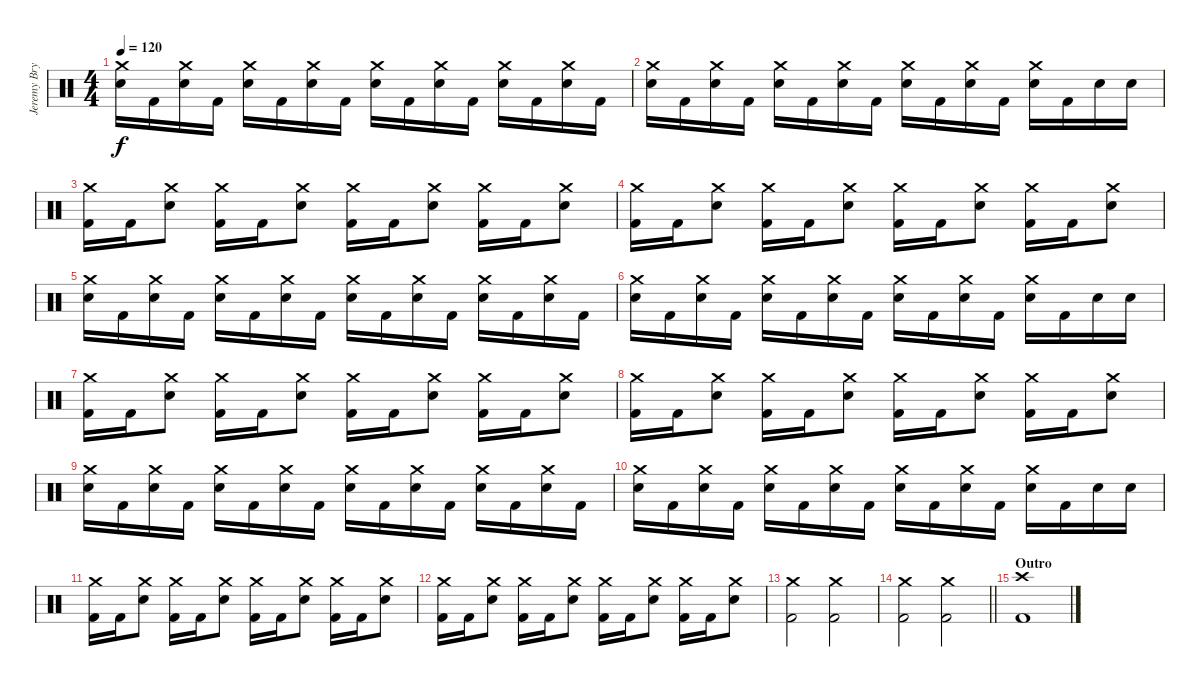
\track ("Jeremy Bryan - Drums" "Jeremy Bry") {instrument percussion}
\staff {score}
\articulation defaults
\ts (4 4)
\tempo 120
\clef neutral
\ks c
("Crash medium (hit)" "Electric Snare (hit)").16{dy f} "Kick (hit) 2".16 ("Crash medium (hit)" "Electric Snare (hit)").16 "Kick (hit) 2".16 ("Crash medium (hit)" "Electric Snare (hit)").16 "Kick (hit) 2".16 ("Crash medium (hit)" "Electric Snare (hit)").16 "Kick (hit) 2".16 ("Crash medium (hit)" "Electric Snare (hit)").16 "Kick (hit) 2".16 ("Crash medium (hit)" "Electric Snare (hit)").16 "Kick (hit) 2".16 ("Crash medium (hit)" "Electric Snare (hit)").16 "Kick (hit) 2".16 ("Crash medium (hit)" "Electric Snare (hit)").16 "Kick (hit) 2".16 |
("Crash medium (hit)" "Electric Snare (hit)").16 "Kick (hit) 2".16 ("Crash medium (hit)" "Electric Snare (hit)").16 "Kick (hit) 2".16 ("Crash medium (hit)" "Electric Snare (hit)").16 "Kick (hit) 2".16 ("Crash medium (hit)" "Electric Snare (hit)").16 "Kick (hit) 2".16 ("Crash medium (hit)" "Electric Snare (hit)").16 "Kick (hit) 2".16 ("Crash medium (hit)" "Electric Snare (hit)").16 "Kick (hit) 2".16 ("Crash medium (hit)" "Electric Snare (hit)").16 "Kick (hit) 2".16 "Electric Snare (hit)".16 "Electric Snare (hit)".16 |
("Crash medium (hit)" "Kick (hit) 2").16 "Kick (hit) 2".16 ("Crash medium (hit)" "Electric Snare (hit)").8 ("Crash medium (hit)" "Kick (hit) 2").16 "Kick (hit) 2".16 ("Crash medium (hit)" "Electric Snare (hit)").8 ("Crash medium (hit)" "Kick (hit) 2").16 "Kick (hit) 2".16 ("Crash medium (hit)" "Electric Snare (hit)").8 ("Crash medium (hit)" "Kick (hit) 2").16 "Kick (hit) 2".16 ("Crash medium (hit)" "Electric Snare (hit)").8 |
("Crash medium (hit)" "Kick (hit) 2").16 "Kick (hit) 2".16 ("Crash medium (hit)" "Electric Snare (hit)").8 ("Crash medium (hit)" "Kick (hit) 2").16 "Kick (hit) 2".16 ("Crash medium (hit)" "Electric Snare (hit)").8 ("Crash medium (hit)" "Kick (hit) 2").16 "Kick (hit) 2".16 ("Crash medium (hit)" "Electric Snare (hit)").8 ("Crash medium (hit)" "Kick (hit) 2").16 "Kick (hit) 2".16 ("Crash medium (hit)" "Electric Snare (hit)").8 |
("Crash medium (hit)" "Electric Snare (hit)").16 "Kick (hit) 2".16 ("Crash medium (hit)" "Electric Snare (hit)").16 "Kick (hit) 2".16 ("Crash medium (hit)" "Electric Snare (hit)").16 "Kick (hit) 2".16 ("Crash medium (hit)" "Electric Snare (hit)").16 "Kick (hit) 2".16 ("Crash medium (hit)" "Electric Snare (hit)").16 "Kick (hit) 2".16 ("Crash medium (hit)" "Electric Snare (hit)").16 "Kick (hit) 2".16 ("Crash medium (hit)" "Electric Snare (hit)").16 "Kick (hit) 2".16 ("Crash medium (hit)" "Electric Snare (hit)").16 "Kick (hit) 2".16 |
("Crash medium (hit)" "Electric Snare (hit)").16 "Kick (hit) 2".16 ("Crash medium (hit)" "Electric Snare (hit)").16 "Kick (hit) 2".16 ("Crash medium (hit)" "Electric Snare (hit)").16 "Kick (hit) 2".16 ("Crash medium (hit)" "Electric Snare (hit)").16 "Kick (hit) 2".16 ("Crash medium (hit)" "Electric Snare (hit)").16 "Kick (hit) 2".16 ("Crash medium (hit)" "Electric Snare (hit)").16 "Kick (hit) 2".16 ("Crash medium (hit)" "Electric Snare (hit)").16 "Kick (hit) 2".16 "Electric Snare (hit)".16 "Electric Snare (hit)".16 |
("Crash medium (hit)" "Kick (hit) 2").16 "Kick (hit) 2".16 ("Crash medium (hit)" "Electric Snare (hit)").8 ("Crash medium (hit)" "Kick (hit) 2").16 "Kick (hit) 2".16 ("Crash medium (hit)" "Electric Snare (hit)").8 ("Crash medium (hit)" "Kick (hit) 2").16 "Kick (hit) 2".16 ("Crash medium (hit)" "Electric Snare (hit)").8 ("Crash medium (hit)" "Kick (hit) 2").16 "Kick (hit) 2".16 ("Crash medium (hit)" "Electric Snare (hit)").8 |
("Crash medium (hit)" "Kick (hit) 2").16 "Kick (hit) 2".16 ("Crash medium (hit)" "Electric Snare (hit)").8 ("Crash medium (hit)" "Kick (hit) 2").16 "Kick (hit) 2".16 ("Crash medium (hit)" "Electric Snare (hit)").8 ("Crash medium (hit)" "Kick (hit) 2").16 "Kick (hit) 2".16 ("Crash medium (hit)" "Electric Snare (hit)").8 ("Crash medium (hit)" "Kick (hit) 2").16 "Kick (hit) 2".16 ("Crash medium (hit)" "Electric Snare (hit)").8 |
("Crash medium (hit)" "Electric Snare (hit)").16 "Kick (hit) 2".16 ("Crash medium (hit)" "Electric Snare (hit)").16 "Kick (hit) 2".16 ("Crash medium (hit)" "Electric Snare (hit)").16 "Kick (hit) 2".16 ("Crash medium (hit)" "Electric Snare (hit)").16 "Kick (hit) 2".16 ("Crash medium (hit)" "Electric Snare (hit)").16 "Kick (hit) 2".16 ("Crash medium (hit)" "Electric Snare (hit)").16 "Kick (hit) 2".16 ("Crash medium (hit)" "Electric Snare (hit)").16 "Kick (hit) 2".16 ("Crash medium (hit)" "Electric Snare (hit)").16 "Kick (hit) 2".16 |
("Crash medium (hit)" "Electric Snare (hit)").16 "Kick (hit) 2".16 ("Crash medium (hit)" "Electric Snare (hit)").16 "Kick (hit) 2".16 ("Crash medium (hit)" "Electric Snare (hit)").16 "Kick (hit) 2".16 ("Crash medium (hit)" "Electric Snare (hit)").16 "Kick (hit) 2".16 ("Crash medium (hit)" "Electric Snare (hit)").16 "Kick (hit) 2".16 ("Crash medium (hit)" "Electric Snare (hit)").16 "Kick (hit) 2".16 ("Crash medium (hit)" "Electric Snare (hit)").16 "Kick (hit) 2".16 "Electric Snare (hit)".16 "Electric Snare (hit)".16 |
("Crash medium (hit)" "Kick (hit) 2").16 "Kick (hit) 2".16 ("Crash medium (hit)" "Electric Snare (hit)").8 ("Crash medium (hit)" "Kick (hit) 2").16 "Kick (hit) 2".16 ("Crash medium (hit)" "Electric Snare (hit)").8 ("Crash medium (hit)" "Kick (hit) 2").16 "Kick (hit) 2".16 ("Crash medium (hit)" "Electric Snare (hit)").8 ("Crash medium (hit)" "Kick (hit) 2").16 "Kick (hit) 2".16 ("Crash medium (hit)" "Electric Snare (hit)").8 |
("Crash medium (hit)" "Kick (hit) 2").16 "Kick (hit) 2".16 ("Crash medium (hit)" "Electric Snare (hit)").8 ("Crash medium (hit)" "Kick (hit) 2").16 "Kick (hit) 2".16 ("Crash medium (hit)" "Electric Snare (hit)").8 ("Crash medium (hit)" "Kick (hit) 2").16 "Kick (hit) 2".16 ("Crash medium (hit)" "Electric Snare (hit)").8 ("Crash medium (hit)" "Kick (hit) 2").16 "Kick (hit) 2".16 ("Crash medium (hit)" "Electric Snare (hit)").8 |
("Crash medium (hit)" "Kick (hit) 2").2 ("Crash medium (hit)" "Kick (hit) 2").2 |
\barLineRight lightlight
("Crash medium (hit)" "Kick (hit) 2").2 ("Crash medium (hit)" "Kick (hit) 2").2 |
\section ("" "Outro")
("Crash high (hit)" "Kick (hit) 2").1
